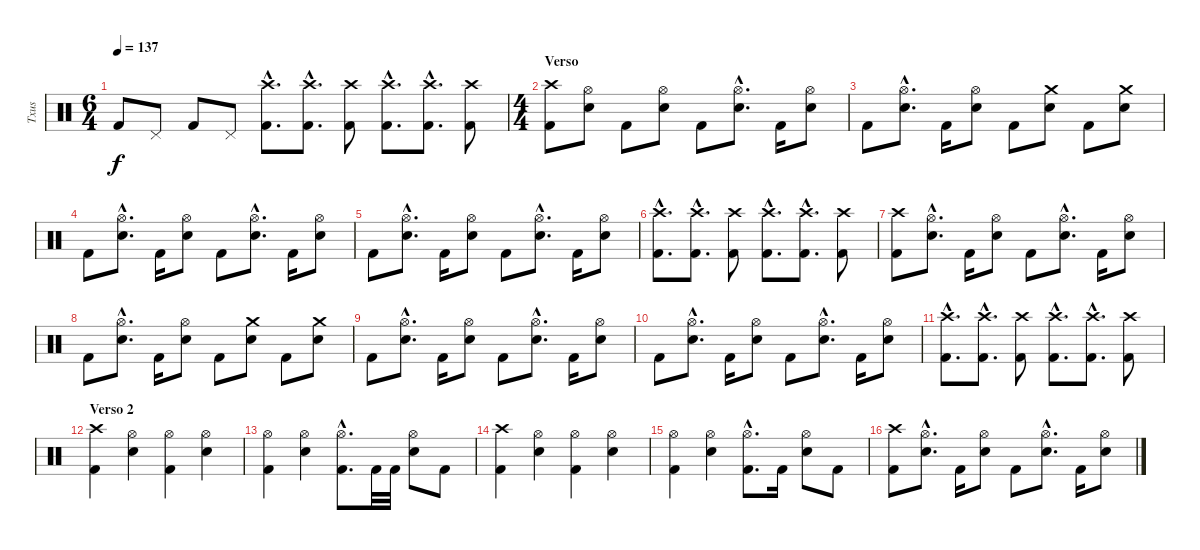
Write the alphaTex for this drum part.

\track ("Txus" "Txus") {instrument percussion}
\staff {score}
\articulation defaults
\ts (6 4)
\tempo 137
\clef neutral
\ks c "Kick (hit) 2".8{dy f} "Pedal Hi-Hat (hit)".8 "Kick (hit) 2".8 "Pedal Hi-Hat (hit)".8
("Kick (hit) 2"{hac} "Crash high (hit)"{hac}).8{d} ("Kick (hit) 2"{hac} "Crash high (hit)"{hac}).8{d} ("Kick (hit) 2" "Crash high (hit)").8 ("Kick (hit) 2"{hac} "Crash high (hit)"{hac}).8{d} ("Kick (hit) 2"{hac} "Crash high (hit)"{hac}).8{d} ("Kick (hit) 2" "Crash high (hit)").8 |
\ts (4 4)
\section ("" "Verso")
("Kick (hit) 2" "Crash high (hit)").8 ("Electric Snare (hit)" "Hi-Hat (open)").8 "Kick (hit) 2".8 ("Electric Snare (hit)" "Hi-Hat (open)").8 "Kick (hit) 2".8 ("Electric Snare (hit)"{hac} "Hi-Hat (open)"{hac}).8{d} "Kick (hit) 2".16 ("Electric Snare (hit)" "Hi-Hat (open)").8 |
"Kick (hit) 2".8 ("Electric Snare (hit)"{hac} "Hi-Hat (open)"{hac}).8{d} "Kick (hit) 2".16 ("Electric Snare (hit)" "Hi-Hat (open)").8 "Kick (hit) 2".8 ("Electric Snare (hit)" "Crash medium (hit)").8 "Kick (hit) 2".8 ("Electric Snare (hit)" "Crash medium (hit)").8 |
"Kick (hit) 2".8 ("Electric Snare (hit)"{hac} "Hi-Hat (open)"{hac}).8{d} "Kick (hit) 2".16 ("Electric Snare (hit)" "Hi-Hat (open)").8 "Kick (hit) 2".8 ("Electric Snare (hit)"{hac} "Hi-Hat (open)"{hac}).8{d} "Kick (hit) 2".16 ("Electric Snare (hit)" "Hi-Hat (open)").8 |
"Kick (hit) 2".8 ("Electric Snare (hit)"{hac} "Hi-Hat (open)"{hac}).8{d} "Kick (hit) 2".16 ("Electric Snare (hit)" "Hi-Hat (open)").8 "Kick (hit) 2".8 ("Electric Snare (hit)"{hac} "Hi-Hat (open)"{hac}).8{d} "Kick (hit) 2".16 ("Electric Snare (hit)" "Hi-Hat (open)").8 |
("Kick (hit) 2"{hac} "Crash high (hit)"{hac}).8{d} ("Kick (hit) 2"{hac} "Crash high (hit)"{hac}).8{d} ("Kick (hit) 2" "Crash high (hit)").8 ("Kick (hit) 2"{hac} "Crash high (hit)"{hac}).8{d} ("Kick (hit) 2"{hac} "Crash high (hit)"{hac}).8{d} ("Kick (hit) 2" "Crash high (hit)").8 |
("Kick (hit) 2" "Crash high (hit)").8 ("Electric Snare (hit)"{hac} "Hi-Hat (open)"{hac}).8{d} "Kick (hit) 2".16 ("Electric Snare (hit)" "Hi-Hat (open)").8 "Kick (hit) 2".8 ("Electric Snare (hit)"{hac} "Hi-Hat (open)"{hac}).8{d} "Kick (hit) 2".16 ("Electric Snare (hit)" "Hi-Hat (open)").8 |
"Kick (hit) 2".8 ("Electric Snare (hit)"{hac} "Hi-Hat (open)"{hac}).8{d} "Kick (hit) 2".16 ("Electric Snare (hit)" "Hi-Hat (open)").8 "Kick (hit) 2".8 ("Electric Snare (hit)" "Crash medium (hit)").8 "Kick (hit) 2".8 ("Electric Snare (hit)" "Crash medium (hit)").8 |
"Kick (hit) 2".8 ("Electric Snare (hit)"{hac} "Hi-Hat (open)"{hac}).8{d} "Kick (hit) 2".16 ("Electric Snare (hit)" "Hi-Hat (open)").8 "Kick (hit) 2".8 ("Electric Snare (hit)"{hac} "Hi-Hat (open)"{hac}).8{d} "Kick (hit) 2".16 ("Electric Snare (hit)" "Hi-Hat (open)").8 |
"Kick (hit) 2".8 ("Electric Snare (hit)"{hac} "Hi-Hat (open)"{hac}).8{d} "Kick (hit) 2".16 ("Electric Snare (hit)" "Hi-Hat (open)").8 "Kick (hit) 2".8 ("Electric Snare (hit)"{hac} "Hi-Hat (open)"{hac}).8{d} "Kick (hit) 2".16 ("Electric Snare (hit)" "Hi-Hat (open)").8 |
("Kick (hit) 2"{hac} "Crash high (hit)"{hac}).8{d} ("Kick (hit) 2"{hac} "Crash high (hit)"{hac}).8{d} ("Kick (hit) 2" "Crash high (hit)").8 ("Kick (hit) 2"{hac} "Crash high (hit)"{hac}).8{d} ("Kick (hit) 2"{hac} "Crash high (hit)"{hac}).8{d} ("Kick (hit) 2" "Crash high (hit)").8 |
\section ("" "Verso 2")
("Kick (hit) 2" "Crash high (hit)").4 ("Electric Snare (hit)" "Hi-Hat (open)").4 ("Kick (hit) 2" "Hi-Hat (open)").4 ("Electric Snare (hit)" "Hi-Hat (open)").4 |
("Kick (hit) 2" "Hi-Hat (open)").4 ("Electric Snare (hit)" "Hi-Hat (open)").4 ("Kick (hit) 2"{hac} "Hi-Hat (open)"{hac}).8{d} "Kick (hit) 2".32 "Kick (hit) 2".32 ("Electric Snare (hit)" "Hi-Hat (open)").8 "Kick (hit) 2".8 |
("Kick (hit) 2" "Crash high (hit)").4 ("Electric Snare (hit)" "Hi-Hat (open)").4 ("Kick (hit) 2" "Hi-Hat (open)").4 ("Electric Snare (hit)" "Hi-Hat (open)").4 |
("Kick (hit) 2" "Hi-Hat (open)").4 ("Electric Snare (hit)" "Hi-Hat (open)").4 ("Kick (hit) 2"{hac} "Hi-Hat (open)"{hac}).8{d} "Kick (hit) 2".16 ("Electric Snare (hit)" "Hi-Hat (open)").8 "Kick (hit) 2".8 |
("Kick (hit) 2" "Crash high (hit)").8 ("Electric Snare (hit)"{hac} "Hi-Hat (open)"{hac}).8{d} "Kick (hit) 2".16 ("Electric Snare (hit)" "Hi-Hat (open)").8 "Kick (hit) 2".8 ("Electric Snare (hit)"{hac} "Hi-Hat (open)"{hac}).8{d} "Kick (hit) 2".16 ("Electric Snare (hit)" "Hi-Hat (open)").8
